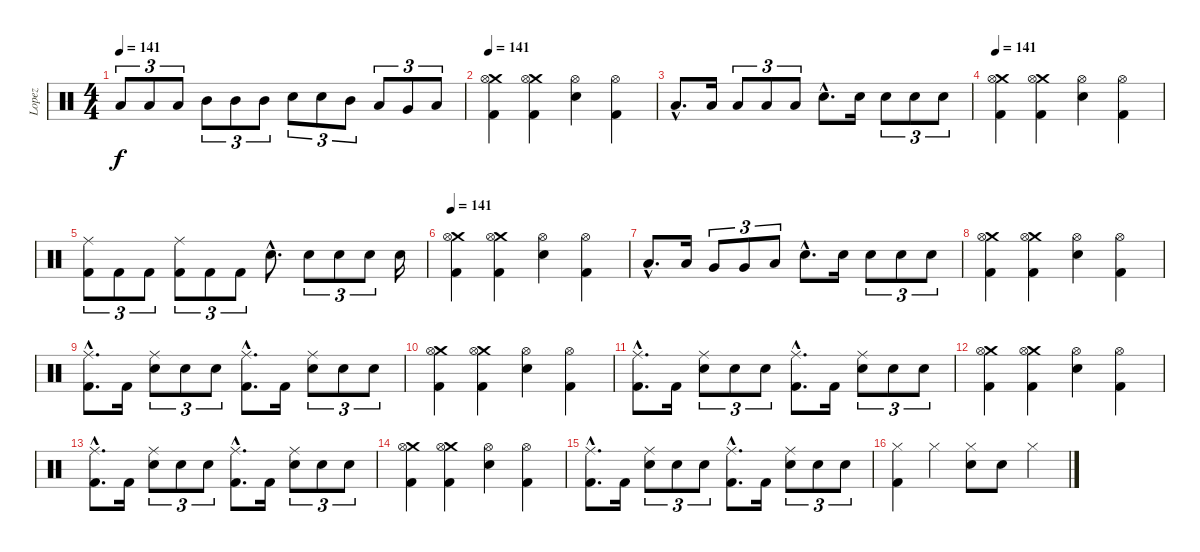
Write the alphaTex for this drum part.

\track ("Lopez" "Lopez") {instrument percussion}
\staff {score}
\articulation defaults
\ts (4 4)
\tempo 141
\clef neutral
\ks c "Low Tom (hit)".8{tu (3 2) dy f} "Low Tom (hit)".8{tu (3 2)} "Low Tom (hit)".8{tu (3 2)} "Mid Tom (hit)".8{tu (3 2)} "Mid Tom (hit)".8{tu (3 2)} "Mid Tom (hit)".8{tu (3 2)} "Electric Snare (hit)".8{tu (3 2)} "Electric Snare (hit)".8{tu (3 2)} "Mid Tom (hit)".8{tu (3 2)} "Low Tom (hit)".8{tu (3 2)} "Very Low Tom (hit)".8{tu (3 2)} "Low Floor Tom (hit)".8{tu (3 2)}
|
\tempo 141
("Crash medium (hit)" "Hi-Hat (open)" "Kick (hit) 2").4 ("Crash medium (hit)" "Hi-Hat (open)" "Kick (hit) 2").4 ("Hi-Hat (open)" "Electric Snare (hit)").4 ("Hi-Hat (open)" "Kick (hit) 2").4 |
"Low Tom (hit)"{hac}.8{d} "Low Tom (hit)".16 "Low Tom (hit)".8{tu (3 2)} "Low Tom (hit)".8{tu (3 2)} "Low Tom (hit)".8{tu (3 2)} "Electric Snare (hit)"{hac}.8{d} "Electric Snare (hit)".16 "Electric Snare (hit)".8{tu (3 2)} "Electric Snare (hit)".8{tu (3 2)} "Electric Snare (hit)".8{tu (3 2)} |
\tempo 141
("Crash medium (hit)" "Hi-Hat (open)" "Kick (hit) 2").4 ("Crash medium (hit)" "Hi-Hat (open)" "Kick (hit) 2").4 ("Hi-Hat (open)" "Electric Snare (hit)").4 ("Hi-Hat (open)" "Kick (hit) 2").4 |
("Ride (middle)" "Kick (hit) 2").8{tu (3 2)} "Kick (hit) 2".8{tu (3 2)} "Kick (hit) 2".8{tu (3 2)} ("Ride (middle)" "Kick (hit) 2").8{tu (3 2)} "Kick (hit) 2".8{tu (3 2)} "Kick (hit) 2".8{tu (3 2)} "Electric Snare (hit)"{hac}.8{d} "Electric Snare (hit)".8{tu (3 2)} "Electric Snare (hit)".8{tu (3 2)} "Electric Snare (hit)".8{tu (3 2)} "Electric Snare (hit)".16 |
\tempo 141
("Crash medium (hit)" "Hi-Hat (open)" "Kick (hit) 2").4 ("Crash medium (hit)" "Hi-Hat (open)" "Kick (hit) 2").4 ("Hi-Hat (open)" "Electric Snare (hit)").4 ("Hi-Hat (open)" "Kick (hit) 2").4 |
"Low Tom (hit)"{hac}.8{d} "Low Tom (hit)".16 "Very Low Tom (hit)".8{tu (3 2)} "Very Low Tom (hit)".8{tu (3 2)} "Low Floor Tom (hit)".8{tu (3 2)} "Electric Snare (hit)"{hac}.8{d} "Electric Snare (hit)".16 "Electric Snare (hit)".8{tu (3 2)} "Electric Snare (hit)".8{tu (3 2)} "Electric Snare (hit)".8{tu (3 2)} |
("Crash medium (hit)" "Hi-Hat (open)" "Kick (hit) 2").4 ("Crash medium (hit)" "Hi-Hat (open)" "Kick (hit) 2").4 ("Hi-Hat (open)" "Electric Snare (hit)").4 ("Hi-Hat (open)" "Kick (hit) 2").4 |
("Ride (middle)"{hac} "Kick (hit) 2"{hac}).8{d} "Kick (hit) 2".16 ("Ride (middle)" "Electric Snare (hit)").8{tu (3 2)} "Electric Snare (hit)".8{tu (3 2)} "Electric Snare (hit)".8{tu (3 2)} ("Ride (middle)"{hac} "Kick (hit) 2"{hac}).8{d} "Kick (hit) 2".16 ("Ride (middle)" "Electric Snare (hit)").8{tu (3 2)} "Electric Snare (hit)".8{tu (3 2)} "Electric Snare (hit)".8{tu (3 2)} |
("Crash medium (hit)" "Hi-Hat (open)" "Kick (hit) 2").4 ("Crash medium (hit)" "Hi-Hat (open)" "Kick (hit) 2").4 ("Hi-Hat (open)" "Electric Snare (hit)").4 ("Hi-Hat (open)" "Kick (hit) 2").4 |
("Ride (middle)"{hac} "Kick (hit) 2"{hac}).8{d} "Kick (hit) 2".16 ("Ride (middle)" "Electric Snare (hit)").8{tu (3 2)} "Electric Snare (hit)".8{tu (3 2)} "Electric Snare (hit)".8{tu (3 2)} ("Ride (middle)"{hac} "Kick (hit) 2"{hac}).8{d} "Kick (hit) 2".16 ("Ride (middle)" "Electric Snare (hit)").8{tu (3 2)} "Electric Snare (hit)".8{tu (3 2)} "Electric Snare (hit)".8{tu (3 2)} |
("Crash medium (hit)" "Hi-Hat (open)" "Kick (hit) 2").4 ("Crash medium (hit)" "Hi-Hat (open)" "Kick (hit) 2").4 ("Hi-Hat (open)" "Electric Snare (hit)").4 ("Hi-Hat (open)" "Kick (hit) 2").4 |
("Ride (middle)"{hac} "Kick (hit) 2"{hac}).8{d} "Kick (hit) 2".16 ("Ride (middle)" "Electric Snare (hit)").8{tu (3 2)} "Electric Snare (hit)".8{tu (3 2)} "Electric Snare (hit)".8{tu (3 2)} ("Ride (middle)"{hac} "Kick (hit) 2"{hac}).8{d} "Kick (hit) 2".16 ("Ride (middle)" "Electric Snare (hit)").8{tu (3 2)} "Electric Snare (hit)".8{tu (3 2)} "Electric Snare (hit)".8{tu (3 2)} |
("Crash medium (hit)" "Hi-Hat (open)" "Kick (hit) 2").4 ("Crash medium (hit)" "Hi-Hat (open)" "Kick (hit) 2").4 ("Hi-Hat (open)" "Electric Snare (hit)").4 ("Hi-Hat (open)" "Kick (hit) 2").4 |
("Ride (middle)"{hac} "Kick (hit) 2"{hac}).8{d} "Kick (hit) 2".16 ("Ride (middle)" "Electric Snare (hit)").8{tu (3 2)} "Electric Snare (hit)".8{tu (3 2)} "Electric Snare (hit)".8{tu (3 2)} ("Ride (middle)"{hac} "Kick (hit) 2"{hac}).8{d} "Kick (hit) 2".16 ("Ride (middle)" "Electric Snare (hit)").8{tu (3 2)} "Electric Snare (hit)".8{tu (3 2)} "Electric Snare (hit)".8{tu (3 2)} |
("Hi-Hat (closed)" "Kick (hit) 2").4 "Hi-Hat (closed)".4 ("Hi-Hat (closed)" "Electric Snare (hit)").8 "Electric Snare (hit)".8 "Hi-Hat (closed)".4
